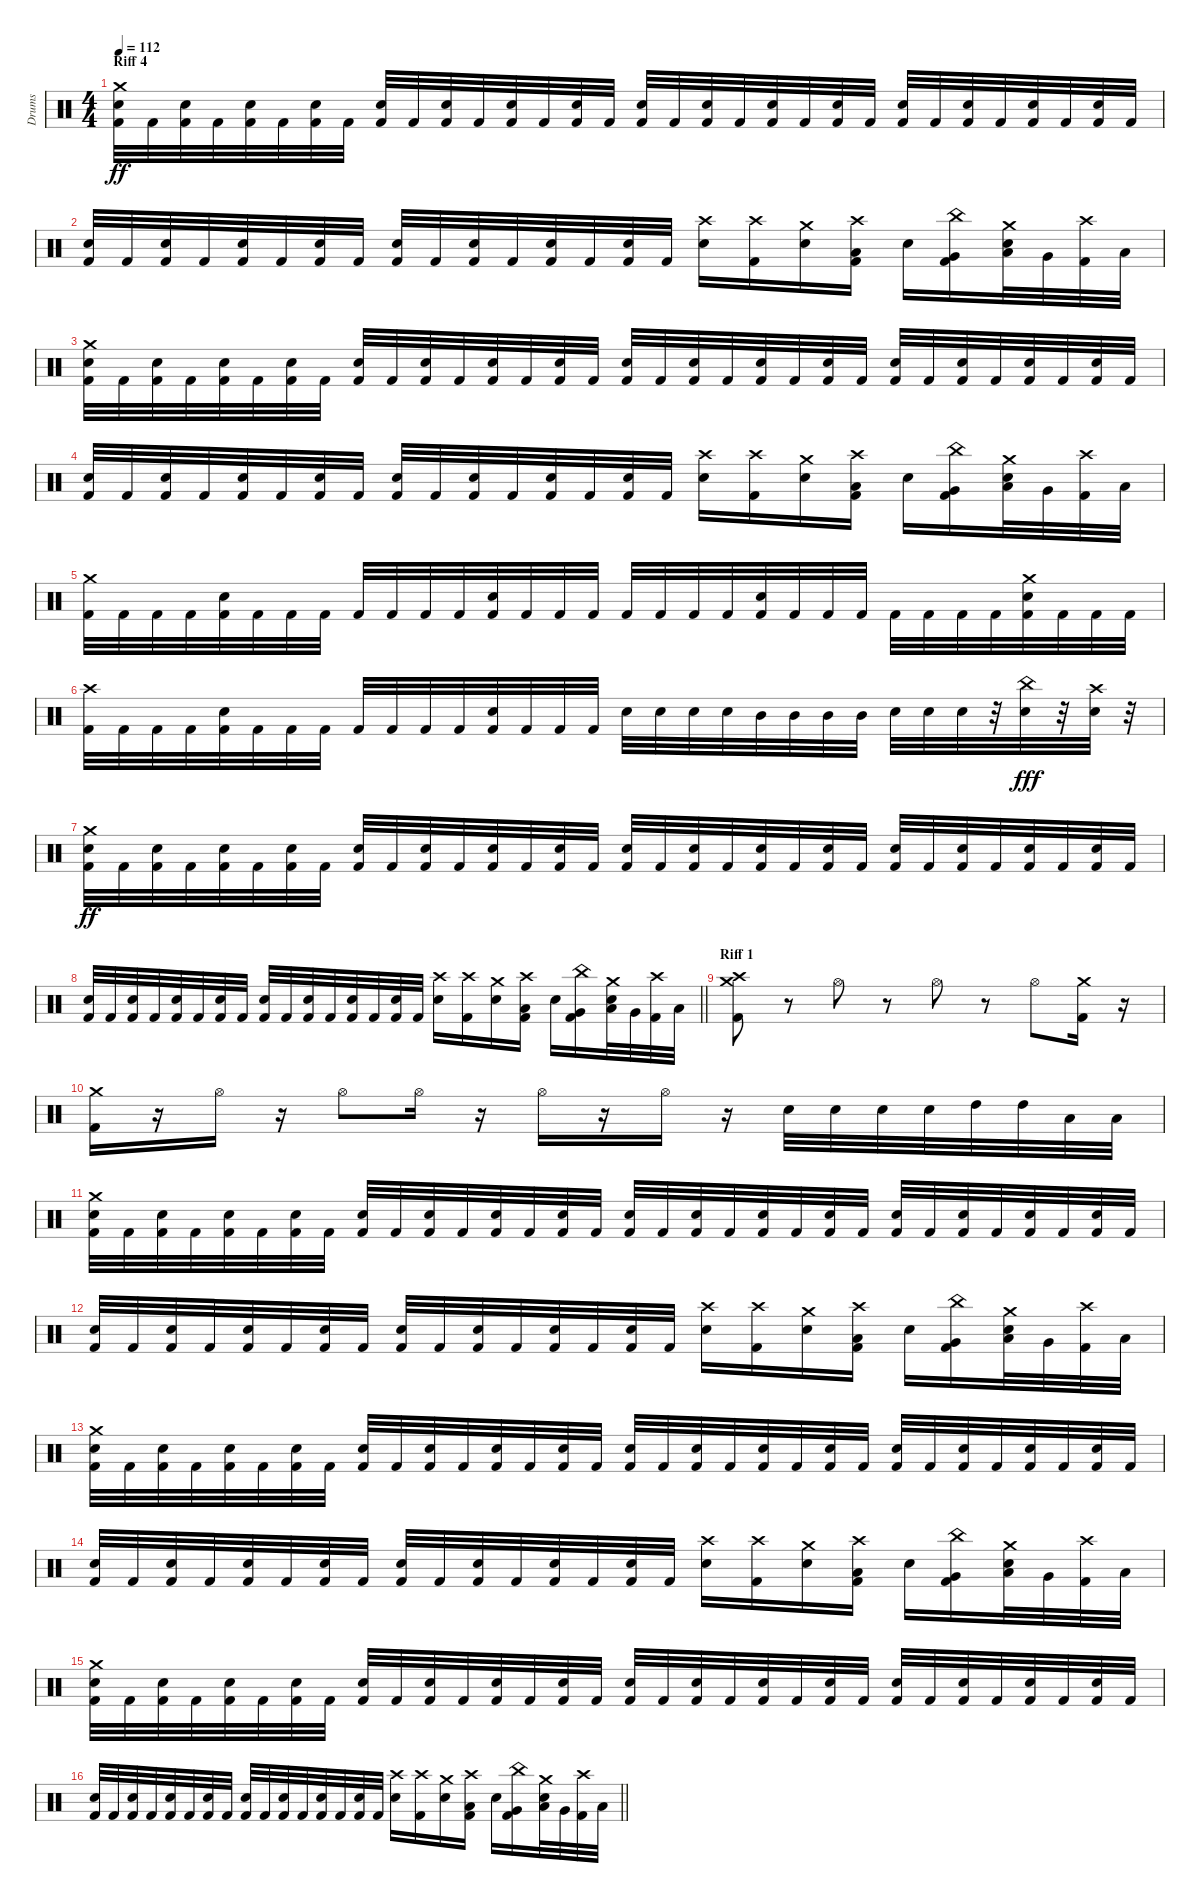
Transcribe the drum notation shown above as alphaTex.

\track ("Drums" "Drums") {instrument percussion}
\staff {score}
\articulation defaults
\ts (4 4)
\section ("" "Riff 4")
\tempo 112
\clef neutral
\ks c
("Crash medium (hit)" "Kick (hit) 2" "Snare (hit) 2").32{dy ff} "Kick (hit) 2".32 ("Kick (hit) 2" "Snare (hit) 2").32 "Kick (hit) 2".32 ("Kick (hit) 2" "Snare (hit) 2").32 "Kick (hit) 2".32 ("Kick (hit) 2" "Snare (hit) 2").32 "Kick (hit) 2".32 ("Kick (hit) 2" "Snare (hit) 2").32 "Kick (hit) 2".32 ("Kick (hit) 2" "Snare (hit) 2").32 "Kick (hit) 2".32 ("Kick (hit) 2" "Snare (hit) 2").32 "Kick (hit) 2".32 ("Kick (hit) 2" "Snare (hit) 2").32 "Kick (hit) 2".32 ("Kick (hit) 2" "Snare (hit) 2").32 "Kick (hit) 2".32 ("Kick (hit) 2" "Snare (hit) 2").32 "Kick (hit) 2".32 ("Kick (hit) 2" "Snare (hit) 2").32 "Kick (hit) 2".32 ("Kick (hit) 2" "Snare (hit) 2").32 "Kick (hit) 2".32 ("Kick (hit) 2" "Snare (hit) 2").32 "Kick (hit) 2".32 ("Kick (hit) 2" "Snare (hit) 2").32 "Kick (hit) 2".32 ("Kick (hit) 2" "Snare (hit) 2").32 "Kick (hit) 2".32 ("Kick (hit) 2" "Snare (hit) 2").32 "Kick (hit) 2".32 |
("Kick (hit) 2" "Snare (hit) 2").32 "Kick (hit) 2".32 ("Kick (hit) 2" "Snare (hit) 2").32 "Kick (hit) 2".32 ("Kick (hit) 2" "Snare (hit) 2").32 "Kick (hit) 2".32 ("Kick (hit) 2" "Snare (hit) 2").32 "Kick (hit) 2".32 ("Kick (hit) 2" "Snare (hit) 2").32 "Kick (hit) 2".32 ("Kick (hit) 2" "Snare (hit) 2").32 "Kick (hit) 2".32 ("Kick (hit) 2" "Snare (hit) 2").32 "Kick (hit) 2".32 ("Kick (hit) 2" "Snare (hit) 2").32 "Kick (hit) 2".32 ("Crash high (hit)" "Snare (hit) 2").16 ("Crash high (hit)" "Kick (hit) 2").16 ("Crash medium (hit)" "Snare (hit) 2").16 ("Crash high (hit)" "Kick (hit) 2" "Low Tom (hit)").16 "Snare (hit) 2".16 ("China (hit)" "Kick (hit) 2" "Very Low Tom (hit)").16 ("Crash medium (hit)" "Snare (hit) 2" "Low Tom (hit)").32 "Very Low Tom (hit)".32 ("Crash high (hit)" "Kick (hit) 2").32 "Low Tom (hit)".32 |
("Crash medium (hit)" "Kick (hit) 2" "Snare (hit) 2").32 "Kick (hit) 2".32 ("Kick (hit) 2" "Snare (hit) 2").32 "Kick (hit) 2".32 ("Kick (hit) 2" "Snare (hit) 2").32 "Kick (hit) 2".32 ("Kick (hit) 2" "Snare (hit) 2").32 "Kick (hit) 2".32 ("Kick (hit) 2" "Snare (hit) 2").32 "Kick (hit) 2".32 ("Kick (hit) 2" "Snare (hit) 2").32 "Kick (hit) 2".32 ("Kick (hit) 2" "Snare (hit) 2").32 "Kick (hit) 2".32 ("Kick (hit) 2" "Snare (hit) 2").32 "Kick (hit) 2".32 ("Kick (hit) 2" "Snare (hit) 2").32 "Kick (hit) 2".32 ("Kick (hit) 2" "Snare (hit) 2").32 "Kick (hit) 2".32 ("Kick (hit) 2" "Snare (hit) 2").32 "Kick (hit) 2".32 ("Kick (hit) 2" "Snare (hit) 2").32 "Kick (hit) 2".32 ("Kick (hit) 2" "Snare (hit) 2").32 "Kick (hit) 2".32 ("Kick (hit) 2" "Snare (hit) 2").32 "Kick (hit) 2".32 ("Kick (hit) 2" "Snare (hit) 2").32 "Kick (hit) 2".32 ("Kick (hit) 2" "Snare (hit) 2").32 "Kick (hit) 2".32 |
("Kick (hit) 2" "Snare (hit) 2").32 "Kick (hit) 2".32 ("Kick (hit) 2" "Snare (hit) 2").32 "Kick (hit) 2".32 ("Kick (hit) 2" "Snare (hit) 2").32 "Kick (hit) 2".32 ("Kick (hit) 2" "Snare (hit) 2").32 "Kick (hit) 2".32 ("Kick (hit) 2" "Snare (hit) 2").32 "Kick (hit) 2".32 ("Kick (hit) 2" "Snare (hit) 2").32 "Kick (hit) 2".32 ("Kick (hit) 2" "Snare (hit) 2").32 "Kick (hit) 2".32 ("Kick (hit) 2" "Snare (hit) 2").32 "Kick (hit) 2".32 ("Crash high (hit)" "Snare (hit) 2").16 ("Crash high (hit)" "Kick (hit) 2").16 ("Crash medium (hit)" "Snare (hit) 2").16 ("Crash high (hit)" "Kick (hit) 2" "Low Tom (hit)").16 "Snare (hit) 2".16 ("China (hit)" "Kick (hit) 2" "Very Low Tom (hit)").16 ("Crash medium (hit)" "Snare (hit) 2" "Low Tom (hit)").32 "Very Low Tom (hit)".32 ("Crash high (hit)" "Kick (hit) 2").32 "Low Tom (hit)".32 |
("Crash medium (hit)" "Kick (hit) 2").32 "Kick (hit) 2".32 "Kick (hit) 2".32 "Kick (hit) 2".32 ("Kick (hit) 2" "Snare (hit) 2").32 "Kick (hit) 2".32 "Kick (hit) 2".32 "Kick (hit) 2".32 "Kick (hit) 2".32 "Kick (hit) 2".32 "Kick (hit) 2".32 "Kick (hit) 2".32 ("Kick (hit) 2" "Snare (hit) 2").32 "Kick (hit) 2".32 "Kick (hit) 2".32 "Kick (hit) 2".32 "Kick (hit) 2".32 "Kick (hit) 2".32 "Kick (hit) 2".32 "Kick (hit) 2".32 ("Kick (hit) 2" "Snare (hit) 2").32 "Kick (hit) 2".32 "Kick (hit) 2".32 "Kick (hit) 2".32 "Kick (hit) 2".32 "Kick (hit) 2".32 "Kick (hit) 2".32 "Kick (hit) 2".32 ("Crash medium (hit)" "Kick (hit) 2" "Snare (hit) 2").32 "Kick (hit) 2".32 "Kick (hit) 2".32 "Kick (hit) 2".32 |
("Crash high (hit)" "Kick (hit) 2").32 "Kick (hit) 2".32 "Kick (hit) 2".32 "Kick (hit) 2".32 ("Kick (hit) 2" "Snare (hit) 2").32 "Kick (hit) 2".32 "Kick (hit) 2".32 "Kick (hit) 2".32 "Kick (hit) 2".32 "Kick (hit) 2".32 "Kick (hit) 2".32 "Kick (hit) 2".32 ("Kick (hit) 2" "Snare (hit) 2").32 "Kick (hit) 2".32 "Kick (hit) 2".32 "Kick (hit) 2".32 "Snare (hit) 2".32 "Snare (hit) 2".32 "Snare (hit) 2".32 "Snare (hit) 2".32 "Mid Tom (hit)".32 "Mid Tom (hit)".32 "Mid Tom (hit)".32 "Mid Tom (hit)".32 "Snare (hit) 2".32 "Snare (hit) 2".32 "Snare (hit) 2".32 r.32 ("China (hit)" "Snare (hit) 2").32{dy fff} r.32 ("Crash high (hit)" "Snare (hit) 2").32 r.32 |
("Crash medium (hit)" "Kick (hit) 2" "Snare (hit) 2").32{dy ff} "Kick (hit) 2".32 ("Kick (hit) 2" "Snare (hit) 2").32 "Kick (hit) 2".32 ("Kick (hit) 2" "Snare (hit) 2").32 "Kick (hit) 2".32 ("Kick (hit) 2" "Snare (hit) 2").32 "Kick (hit) 2".32 ("Kick (hit) 2" "Snare (hit) 2").32 "Kick (hit) 2".32 ("Kick (hit) 2" "Snare (hit) 2").32 "Kick (hit) 2".32 ("Kick (hit) 2" "Snare (hit) 2").32 "Kick (hit) 2".32 ("Kick (hit) 2" "Snare (hit) 2").32 "Kick (hit) 2".32 ("Kick (hit) 2" "Snare (hit) 2").32 "Kick (hit) 2".32 ("Kick (hit) 2" "Snare (hit) 2").32 "Kick (hit) 2".32 ("Kick (hit) 2" "Snare (hit) 2").32 "Kick (hit) 2".32 ("Kick (hit) 2" "Snare (hit) 2").32 "Kick (hit) 2".32 ("Kick (hit) 2" "Snare (hit) 2").32 "Kick (hit) 2".32 ("Kick (hit) 2" "Snare (hit) 2").32 "Kick (hit) 2".32 ("Kick (hit) 2" "Snare (hit) 2").32 "Kick (hit) 2".32 ("Kick (hit) 2" "Snare (hit) 2").32 "Kick (hit) 2".32 |
\barLineRight lightlight
("Kick (hit) 2" "Snare (hit) 2").32 "Kick (hit) 2".32 ("Kick (hit) 2" "Snare (hit) 2").32 "Kick (hit) 2".32 ("Kick (hit) 2" "Snare (hit) 2").32 "Kick (hit) 2".32 ("Kick (hit) 2" "Snare (hit) 2").32 "Kick (hit) 2".32 ("Kick (hit) 2" "Snare (hit) 2").32 "Kick (hit) 2".32 ("Kick (hit) 2" "Snare (hit) 2").32 "Kick (hit) 2".32 ("Kick (hit) 2" "Snare (hit) 2").32 "Kick (hit) 2".32 ("Kick (hit) 2" "Snare (hit) 2").32 "Kick (hit) 2".32 ("Crash high (hit)" "Snare (hit) 2").16 ("Crash high (hit)" "Kick (hit) 2").16 ("Crash medium (hit)" "Snare (hit) 2").16 ("Crash high (hit)" "Kick (hit) 2" "Low Tom (hit)").16 "Snare (hit) 2".16 ("China (hit)" "Kick (hit) 2" "Very Low Tom (hit)").16 ("Crash medium (hit)" "Snare (hit) 2" "Low Tom (hit)").32 "Very Low Tom (hit)".32 ("Crash high (hit)" "Kick (hit) 2").32 "Low Tom (hit)".32 |
\section ("" "Riff 1")
("Crash high (hit)" "Crash medium (hit)" "Kick (hit) 2").8 r.8 "Hi-Hat (open)".8 r.8 "Hi-Hat (open)".8 r.8 "Hi-Hat (open)".8 ("Crash medium (hit)" "Kick (hit) 2").16 r.16 |
("Crash medium (hit)" "Kick (hit) 2").16 r.16 "Hi-Hat (open)".16 r.16 "Hi-Hat (open)".8 "Hi-Hat (open)".16 r.16 "Hi-Hat (open)".16 r.16 "Hi-Hat (open)".16 r.16 "Snare (hit) 2".32 "Snare (hit) 2".32 "Snare (hit) 2".32 "Snare (hit) 2".32 "High Tom (hit)".32 "High Tom (hit)".32 "Low Tom (hit)".32 "Low Tom (hit)".32 |
("Crash medium (hit)" "Kick (hit) 2" "Snare (hit) 2").32 "Kick (hit) 2".32 ("Kick (hit) 2" "Snare (hit) 2").32 "Kick (hit) 2".32 ("Kick (hit) 2" "Snare (hit) 2").32 "Kick (hit) 2".32 ("Kick (hit) 2" "Snare (hit) 2").32 "Kick (hit) 2".32 ("Kick (hit) 2" "Snare (hit) 2").32 "Kick (hit) 2".32 ("Kick (hit) 2" "Snare (hit) 2").32 "Kick (hit) 2".32 ("Kick (hit) 2" "Snare (hit) 2").32 "Kick (hit) 2".32 ("Kick (hit) 2" "Snare (hit) 2").32 "Kick (hit) 2".32 ("Kick (hit) 2" "Snare (hit) 2").32 "Kick (hit) 2".32 ("Kick (hit) 2" "Snare (hit) 2").32 "Kick (hit) 2".32 ("Kick (hit) 2" "Snare (hit) 2").32 "Kick (hit) 2".32 ("Kick (hit) 2" "Snare (hit) 2").32 "Kick (hit) 2".32 ("Kick (hit) 2" "Snare (hit) 2").32 "Kick (hit) 2".32 ("Kick (hit) 2" "Snare (hit) 2").32 "Kick (hit) 2".32 ("Kick (hit) 2" "Snare (hit) 2").32 "Kick (hit) 2".32 ("Kick (hit) 2" "Snare (hit) 2").32 "Kick (hit) 2".32 |
("Kick (hit) 2" "Snare (hit) 2").32 "Kick (hit) 2".32 ("Kick (hit) 2" "Snare (hit) 2").32 "Kick (hit) 2".32 ("Kick (hit) 2" "Snare (hit) 2").32 "Kick (hit) 2".32 ("Kick (hit) 2" "Snare (hit) 2").32 "Kick (hit) 2".32 ("Kick (hit) 2" "Snare (hit) 2").32 "Kick (hit) 2".32 ("Kick (hit) 2" "Snare (hit) 2").32 "Kick (hit) 2".32 ("Kick (hit) 2" "Snare (hit) 2").32 "Kick (hit) 2".32 ("Kick (hit) 2" "Snare (hit) 2").32 "Kick (hit) 2".32 ("Crash high (hit)" "Snare (hit) 2").16 ("Crash high (hit)" "Kick (hit) 2").16 ("Crash medium (hit)" "Snare (hit) 2").16 ("Crash high (hit)" "Kick (hit) 2" "Low Tom (hit)").16 "Snare (hit) 2".16 ("China (hit)" "Kick (hit) 2" "Very Low Tom (hit)").16 ("Crash medium (hit)" "Snare (hit) 2" "Low Tom (hit)").32 "Very Low Tom (hit)".32 ("Crash high (hit)" "Kick (hit) 2").32 "Low Tom (hit)".32 |
("Crash medium (hit)" "Kick (hit) 2" "Snare (hit) 2").32 "Kick (hit) 2".32 ("Kick (hit) 2" "Snare (hit) 2").32 "Kick (hit) 2".32 ("Kick (hit) 2" "Snare (hit) 2").32 "Kick (hit) 2".32 ("Kick (hit) 2" "Snare (hit) 2").32 "Kick (hit) 2".32 ("Kick (hit) 2" "Snare (hit) 2").32 "Kick (hit) 2".32 ("Kick (hit) 2" "Snare (hit) 2").32 "Kick (hit) 2".32 ("Kick (hit) 2" "Snare (hit) 2").32 "Kick (hit) 2".32 ("Kick (hit) 2" "Snare (hit) 2").32 "Kick (hit) 2".32 ("Kick (hit) 2" "Snare (hit) 2").32 "Kick (hit) 2".32 ("Kick (hit) 2" "Snare (hit) 2").32 "Kick (hit) 2".32 ("Kick (hit) 2" "Snare (hit) 2").32 "Kick (hit) 2".32 ("Kick (hit) 2" "Snare (hit) 2").32 "Kick (hit) 2".32 ("Kick (hit) 2" "Snare (hit) 2").32 "Kick (hit) 2".32 ("Kick (hit) 2" "Snare (hit) 2").32 "Kick (hit) 2".32 ("Kick (hit) 2" "Snare (hit) 2").32 "Kick (hit) 2".32 ("Kick (hit) 2" "Snare (hit) 2").32 "Kick (hit) 2".32 |
("Kick (hit) 2" "Snare (hit) 2").32 "Kick (hit) 2".32 ("Kick (hit) 2" "Snare (hit) 2").32 "Kick (hit) 2".32 ("Kick (hit) 2" "Snare (hit) 2").32 "Kick (hit) 2".32 ("Kick (hit) 2" "Snare (hit) 2").32 "Kick (hit) 2".32 ("Kick (hit) 2" "Snare (hit) 2").32 "Kick (hit) 2".32 ("Kick (hit) 2" "Snare (hit) 2").32 "Kick (hit) 2".32 ("Kick (hit) 2" "Snare (hit) 2").32 "Kick (hit) 2".32 ("Kick (hit) 2" "Snare (hit) 2").32 "Kick (hit) 2".32 ("Crash high (hit)" "Snare (hit) 2").16 ("Crash high (hit)" "Kick (hit) 2").16 ("Crash medium (hit)" "Snare (hit) 2").16 ("Crash high (hit)" "Kick (hit) 2" "Low Tom (hit)").16 "Snare (hit) 2".16 ("China (hit)" "Kick (hit) 2" "Very Low Tom (hit)").16 ("Crash medium (hit)" "Snare (hit) 2" "Low Tom (hit)").32 "Very Low Tom (hit)".32 ("Crash high (hit)" "Kick (hit) 2").32 "Low Tom (hit)".32 |
("Crash medium (hit)" "Kick (hit) 2" "Snare (hit) 2").32 "Kick (hit) 2".32 ("Kick (hit) 2" "Snare (hit) 2").32 "Kick (hit) 2".32 ("Kick (hit) 2" "Snare (hit) 2").32 "Kick (hit) 2".32 ("Kick (hit) 2" "Snare (hit) 2").32 "Kick (hit) 2".32 ("Kick (hit) 2" "Snare (hit) 2").32 "Kick (hit) 2".32 ("Kick (hit) 2" "Snare (hit) 2").32 "Kick (hit) 2".32 ("Kick (hit) 2" "Snare (hit) 2").32 "Kick (hit) 2".32 ("Kick (hit) 2" "Snare (hit) 2").32 "Kick (hit) 2".32 ("Kick (hit) 2" "Snare (hit) 2").32 "Kick (hit) 2".32 ("Kick (hit) 2" "Snare (hit) 2").32 "Kick (hit) 2".32 ("Kick (hit) 2" "Snare (hit) 2").32 "Kick (hit) 2".32 ("Kick (hit) 2" "Snare (hit) 2").32 "Kick (hit) 2".32 ("Kick (hit) 2" "Snare (hit) 2").32 "Kick (hit) 2".32 ("Kick (hit) 2" "Snare (hit) 2").32 "Kick (hit) 2".32 ("Kick (hit) 2" "Snare (hit) 2").32 "Kick (hit) 2".32 ("Kick (hit) 2" "Snare (hit) 2").32 "Kick (hit) 2".32 |
\barLineRight lightlight
("Kick (hit) 2" "Snare (hit) 2").32 "Kick (hit) 2".32 ("Kick (hit) 2" "Snare (hit) 2").32 "Kick (hit) 2".32 ("Kick (hit) 2" "Snare (hit) 2").32 "Kick (hit) 2".32 ("Kick (hit) 2" "Snare (hit) 2").32 "Kick (hit) 2".32 ("Kick (hit) 2" "Snare (hit) 2").32 "Kick (hit) 2".32 ("Kick (hit) 2" "Snare (hit) 2").32 "Kick (hit) 2".32 ("Kick (hit) 2" "Snare (hit) 2").32 "Kick (hit) 2".32 ("Kick (hit) 2" "Snare (hit) 2").32 "Kick (hit) 2".32 ("Crash high (hit)" "Snare (hit) 2").16 ("Crash high (hit)" "Kick (hit) 2").16 ("Crash medium (hit)" "Snare (hit) 2").16 ("Crash high (hit)" "Kick (hit) 2" "Low Tom (hit)").16 "Snare (hit) 2".16 ("China (hit)" "Kick (hit) 2" "Very Low Tom (hit)").16 ("Crash medium (hit)" "Snare (hit) 2" "Low Tom (hit)").32 "Very Low Tom (hit)".32 ("Crash high (hit)" "Kick (hit) 2").32 "Low Tom (hit)".32
